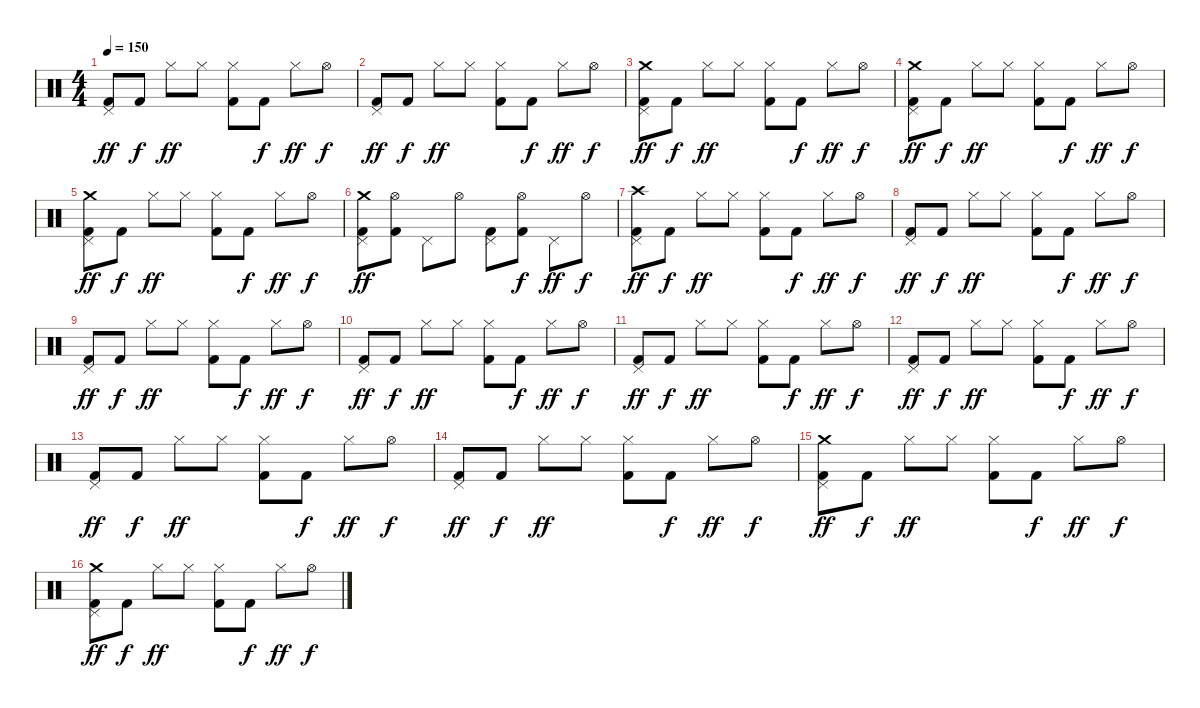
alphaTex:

\track "" {instrument percussion}
\staff {score}
\articulation defaults
\ts (4 4)
\tempo 150
\clef neutral
\ks c
("Pedal Hi-Hat (hit)" "Kick (hit) 2").8{dy ff} "Kick (hit) 2".8{dy f} "Hi-Hat (closed)".8{dy ff} "Hi-Hat (closed)".8 ("Hi-Hat (closed)" "Kick (hit) 2").8 "Kick (hit) 2".8{dy f} "Hi-Hat (closed)".8{dy ff} "Hi-Hat (open)".8{dy f} |
("Pedal Hi-Hat (hit)" "Kick (hit) 2").8{dy ff} "Kick (hit) 2".8{dy f} "Hi-Hat (closed)".8{dy ff} "Hi-Hat (closed)".8 ("Hi-Hat (closed)" "Kick (hit) 2").8 "Kick (hit) 2".8{dy f} "Hi-Hat (closed)".8{dy ff} "Hi-Hat (open)".8{dy f} |
("Crash medium (hit)" "Pedal Hi-Hat (hit)" "Kick (hit) 2").8{dy ff} "Kick (hit) 2".8{dy f} "Hi-Hat (closed)".8{dy ff} "Hi-Hat (closed)".8 ("Hi-Hat (closed)" "Kick (hit) 2").8 "Kick (hit) 2".8{dy f} "Hi-Hat (closed)".8{dy ff} "Hi-Hat (open)".8{dy f} |
("Crash medium (hit)" "Pedal Hi-Hat (hit)" "Kick (hit) 2").8{dy ff} "Kick (hit) 2".8{dy f} "Hi-Hat (closed)".8{dy ff} "Hi-Hat (closed)".8 ("Hi-Hat (closed)" "Kick (hit) 2").8 "Kick (hit) 2".8{dy f} "Hi-Hat (closed)".8{dy ff} "Hi-Hat (open)".8{dy f} |
("Crash medium (hit)" "Pedal Hi-Hat (hit)" "Kick (hit) 2").8{dy ff} "Kick (hit) 2".8{dy f} "Hi-Hat (closed)".8{dy ff} "Hi-Hat (closed)".8 ("Hi-Hat (closed)" "Kick (hit) 2").8 "Kick (hit) 2".8{dy f} "Hi-Hat (closed)".8{dy ff} "Hi-Hat (open)".8{dy f} |
("Crash medium (hit)" "Pedal Hi-Hat (hit)" "Kick (hit) 2").8{dy ff} ("Hi-Hat (open)" "Kick (hit) 2").8 "Pedal Hi-Hat (hit)".8 "Hi-Hat (open)".8 ("Pedal Hi-Hat (hit)" "Kick (hit) 2").8 ("Hi-Hat (open)" "Kick (hit) 2").8{dy f} "Pedal Hi-Hat (hit)".8{dy ff} "Hi-Hat (open)".8{dy f} |
("Crash high (hit)" "Pedal Hi-Hat (hit)" "Kick (hit) 2").8{dy ff} "Kick (hit) 2".8{dy f} "Hi-Hat (closed)".8{dy ff} "Hi-Hat (closed)".8 ("Hi-Hat (closed)" "Kick (hit) 2").8 "Kick (hit) 2".8{dy f} "Hi-Hat (closed)".8{dy ff} "Hi-Hat (open)".8{dy f} |
("Pedal Hi-Hat (hit)" "Kick (hit) 2").8{dy ff} "Kick (hit) 2".8{dy f} "Hi-Hat (closed)".8{dy ff} "Hi-Hat (closed)".8 ("Hi-Hat (closed)" "Kick (hit) 2").8 "Kick (hit) 2".8{dy f} "Hi-Hat (closed)".8{dy ff} "Hi-Hat (open)".8{dy f} |
("Pedal Hi-Hat (hit)" "Kick (hit) 2").8{dy ff} "Kick (hit) 2".8{dy f} "Hi-Hat (closed)".8{dy ff} "Hi-Hat (closed)".8 ("Hi-Hat (closed)" "Kick (hit) 2").8 "Kick (hit) 2".8{dy f} "Hi-Hat (closed)".8{dy ff} "Hi-Hat (open)".8{dy f} |
("Pedal Hi-Hat (hit)" "Kick (hit) 2").8{dy ff} "Kick (hit) 2".8{dy f} "Hi-Hat (closed)".8{dy ff} "Hi-Hat (closed)".8 ("Hi-Hat (closed)" "Kick (hit) 2").8 "Kick (hit) 2".8{dy f} "Hi-Hat (closed)".8{dy ff} "Hi-Hat (open)".8{dy f} |
("Pedal Hi-Hat (hit)" "Kick (hit) 2").8{dy ff} "Kick (hit) 2".8{dy f} "Hi-Hat (closed)".8{dy ff} "Hi-Hat (closed)".8 ("Hi-Hat (closed)" "Kick (hit) 2").8 "Kick (hit) 2".8{dy f} "Hi-Hat (closed)".8{dy ff} "Hi-Hat (open)".8{dy f} |
("Pedal Hi-Hat (hit)" "Kick (hit) 2").8{dy ff} "Kick (hit) 2".8{dy f} "Hi-Hat (closed)".8{dy ff} "Hi-Hat (closed)".8 ("Hi-Hat (closed)" "Kick (hit) 2").8 "Kick (hit) 2".8{dy f} "Hi-Hat (closed)".8{dy ff} "Hi-Hat (open)".8{dy f} |
("Pedal Hi-Hat (hit)" "Kick (hit) 2").8{dy ff} "Kick (hit) 2".8{dy f} "Hi-Hat (closed)".8{dy ff} "Hi-Hat (closed)".8 ("Hi-Hat (closed)" "Kick (hit) 2").8 "Kick (hit) 2".8{dy f} "Hi-Hat (closed)".8{dy ff} "Hi-Hat (open)".8{dy f} |
("Pedal Hi-Hat (hit)" "Kick (hit) 2").8{dy ff} "Kick (hit) 2".8{dy f} "Hi-Hat (closed)".8{dy ff} "Hi-Hat (closed)".8 ("Hi-Hat (closed)" "Kick (hit) 2").8 "Kick (hit) 2".8{dy f} "Hi-Hat (closed)".8{dy ff} "Hi-Hat (open)".8{dy f} |
("Crash medium (hit)" "Pedal Hi-Hat (hit)" "Kick (hit) 2").8{dy ff} "Kick (hit) 2".8{dy f} "Hi-Hat (closed)".8{dy ff} "Hi-Hat (closed)".8 ("Hi-Hat (closed)" "Kick (hit) 2").8 "Kick (hit) 2".8{dy f} "Hi-Hat (closed)".8{dy ff} "Hi-Hat (open)".8{dy f} |
("Crash medium (hit)" "Pedal Hi-Hat (hit)" "Kick (hit) 2").8{dy ff} "Kick (hit) 2".8{dy f} "Hi-Hat (closed)".8{dy ff} "Hi-Hat (closed)".8 ("Hi-Hat (closed)" "Kick (hit) 2").8 "Kick (hit) 2".8{dy f} "Hi-Hat (closed)".8{dy ff} "Hi-Hat (open)".8{dy f}
